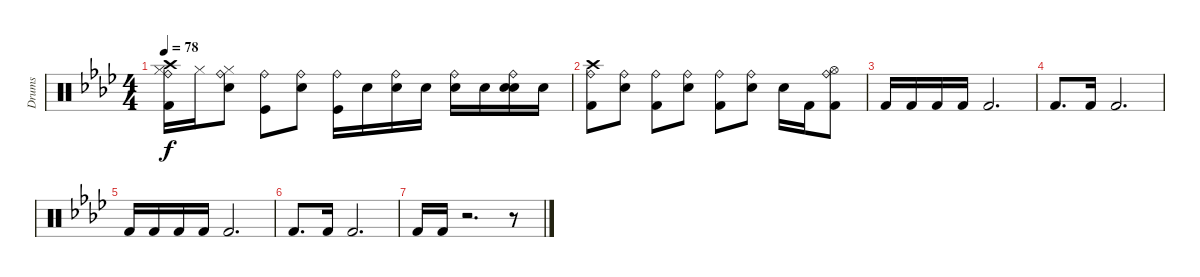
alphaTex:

\track ("Drums" "Drums") {instrument percussion}
\staff {score}
\articulation defaults
\ts (4 4)
\tempo 78
\clef neutral
\ks fminor
("Crash high (hit)" "Ride (bell)" "Hi-Hat (closed)" "Kick (hit) 2").16{dy f} "Hi-Hat (closed)".16 ("Ride (bell)" "Hi-Hat (closed)" "Snare (hit) 2").8 ("Ride (bell)" "Kick (hit)").8 ("Ride (bell)" "Snare (hit) 2").8 ("Ride (bell)" "Kick (hit)").16 "Snare (hit) 2".16 ("Ride (bell)" "Snare (hit) 2").16 "Snare (hit) 2".16 ("Ride (bell)" "Snare (hit) 2").16 "Snare (hit) 2".16 ("Ride (bell)" "Hand Clap (hit)" "Snare (hit) 2").16 "Snare (hit) 2".16 |
("Crash high (hit)" "Ride (bell)" "Kick (hit) 2").8 ("Ride (bell)" "Snare (hit) 2").8 ("Ride (bell)" "Kick (hit) 2").8 ("Ride (bell)" "Snare (hit) 2").8 ("Ride (bell)" "Kick (hit) 2").8 ("Ride (bell)" "Snare (hit) 2").8 "Snare (hit) 2".16 "Kick (hit) 2".16 ("Ride (bell)" "Hi-Hat (open)" "Kick (hit) 2").8 |
"Kick (hit) 2".16 "Kick (hit) 2".16 "Kick (hit) 2".16 "Kick (hit) 2".16 "Kick (hit) 2".2{d} |
"Kick (hit) 2".8{d} "Kick (hit) 2".16 "Kick (hit) 2".2{d} |
"Kick (hit) 2".16 "Kick (hit) 2".16 "Kick (hit) 2".16 "Kick (hit) 2".16 "Kick (hit) 2".2{d} |
"Kick (hit) 2".8{d} "Kick (hit) 2".16 "Kick (hit) 2".2{d} |
"Kick (hit) 2".16 "Kick (hit) 2".16 r.2{d} r.8
